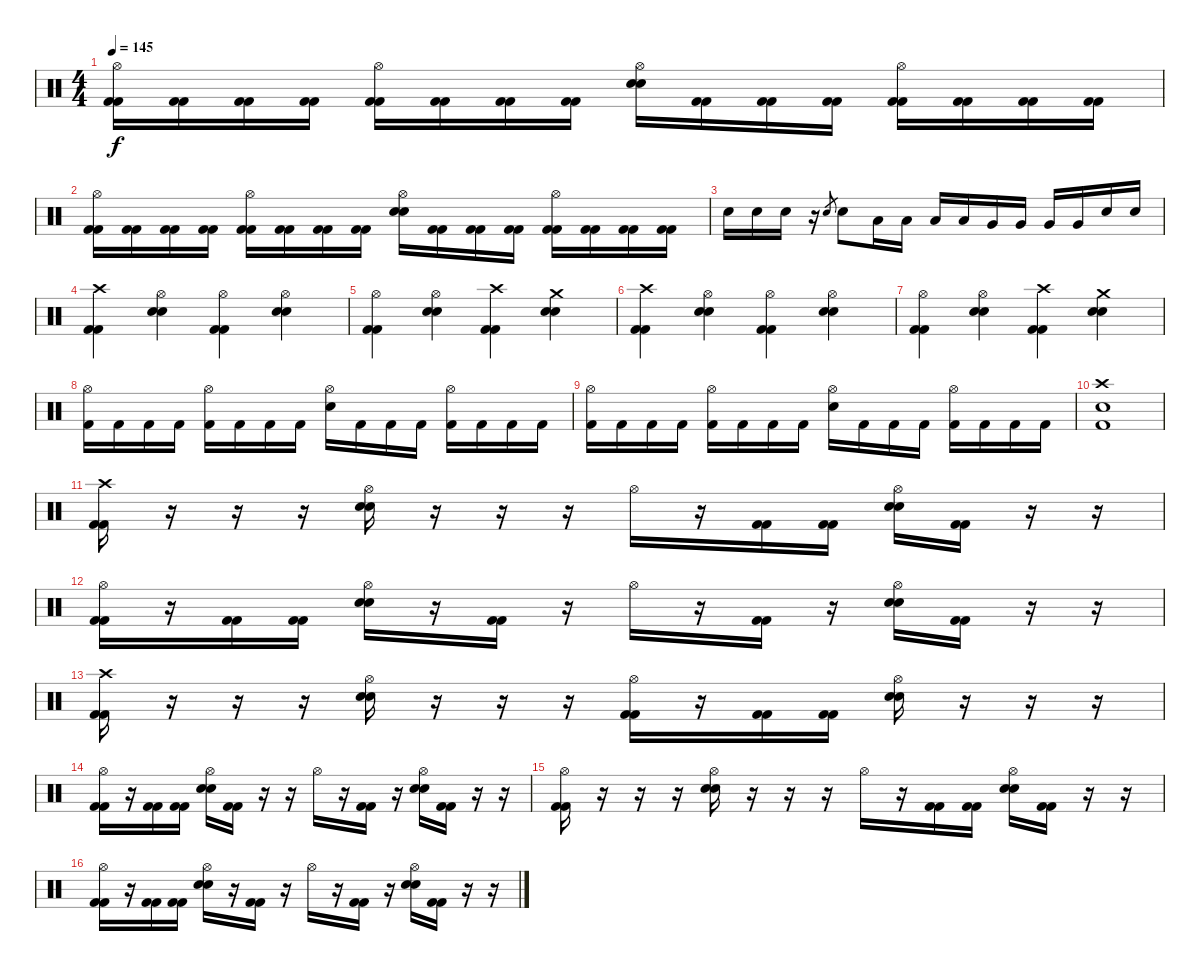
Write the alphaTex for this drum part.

\track "" {instrument percussion}
\staff {score}
\articulation defaults
\ts (4 4)
\tempo 145
\clef neutral
\ks c
("Hi-Hat (open)" "Kick (hit) 2" "Kick (hit) 2").16{dy f} ("Kick (hit) 2" "Kick (hit) 2").16 ("Kick (hit) 2" "Kick (hit) 2").16 ("Kick (hit) 2" "Kick (hit) 2").16 ("Hi-Hat (open)" "Kick (hit) 2" "Kick (hit) 2").16 ("Kick (hit) 2" "Kick (hit) 2").16 ("Kick (hit) 2" "Kick (hit) 2").16 ("Kick (hit) 2" "Kick (hit) 2").16 ("Hi-Hat (open)" "Snare (hit) 2" "Snare (hit) 2").16 ("Kick (hit) 2" "Kick (hit) 2").16 ("Kick (hit) 2" "Kick (hit) 2").16 ("Kick (hit) 2" "Kick (hit) 2").16 ("Hi-Hat (open)" "Kick (hit) 2" "Kick (hit) 2").16 ("Kick (hit) 2" "Kick (hit) 2").16 ("Kick (hit) 2" "Kick (hit) 2").16 ("Kick (hit) 2" "Kick (hit) 2").16 |
("Hi-Hat (open)" "Kick (hit) 2" "Kick (hit) 2").16 ("Kick (hit) 2" "Kick (hit) 2").16 ("Kick (hit) 2" "Kick (hit) 2").16 ("Kick (hit) 2" "Kick (hit) 2").16 ("Hi-Hat (open)" "Kick (hit) 2" "Kick (hit) 2").16 ("Kick (hit) 2" "Kick (hit) 2").16 ("Kick (hit) 2" "Kick (hit) 2").16 ("Kick (hit) 2" "Kick (hit) 2").16 ("Hi-Hat (open)" "Snare (hit) 2" "Snare (hit) 2").16 ("Kick (hit) 2" "Kick (hit) 2").16 ("Kick (hit) 2" "Kick (hit) 2").16 ("Kick (hit) 2" "Kick (hit) 2").16 ("Hi-Hat (open)" "Kick (hit) 2" "Kick (hit) 2").16 ("Kick (hit) 2" "Kick (hit) 2").16 ("Kick (hit) 2" "Kick (hit) 2").16 ("Kick (hit) 2" "Kick (hit) 2").16 |
"Electric Snare (hit)".16 "Electric Snare (hit)".16 "Electric Snare (hit)".16 r.16 "Electric Snare (hit)".8{gr} "Electric Snare (hit)".8 "Low Tom (hit)".16 "Low Tom (hit)".16 "Low Tom (hit)".16 "Low Tom (hit)".16 "Very Low Tom (hit)".16 "Very Low Tom (hit)".16 "Very Low Tom (hit)".16 "Very Low Tom (hit)".16 "Snare (hit) 2".16 "Snare (hit) 2".16 |
("Crash high (hit)" "Kick (hit) 2" "Kick (hit) 2").4 ("Hi-Hat (open)" "Snare (hit) 2" "Snare (hit) 2").4 ("Hi-Hat (open)" "Kick (hit) 2" "Kick (hit) 2").4 ("Hi-Hat (open)" "Snare (hit) 2" "Snare (hit) 2").4 |
("Hi-Hat (open)" "Kick (hit) 2" "Kick (hit) 2").4 ("Hi-Hat (open)" "Snare (hit) 2" "Snare (hit) 2").4 ("Crash high (hit)" "Kick (hit) 2" "Kick (hit) 2").4 ("Crash medium (hit)" "Snare (hit) 2" "Snare (hit) 2").4 |
("Crash high (hit)" "Kick (hit) 2" "Kick (hit) 2").4 ("Hi-Hat (open)" "Snare (hit) 2" "Snare (hit) 2").4 ("Hi-Hat (open)" "Kick (hit) 2" "Kick (hit) 2").4 ("Hi-Hat (open)" "Snare (hit) 2" "Snare (hit) 2").4 |
("Hi-Hat (open)" "Kick (hit) 2" "Kick (hit) 2").4 ("Hi-Hat (open)" "Snare (hit) 2" "Snare (hit) 2").4 ("Crash high (hit)" "Kick (hit) 2" "Kick (hit) 2").4 ("Crash medium (hit)" "Snare (hit) 2" "Snare (hit) 2").4 |
("Hi-Hat (open)" "Kick (hit) 2").16 "Kick (hit) 2".16 "Kick (hit) 2".16 "Kick (hit) 2".16 ("Hi-Hat (open)" "Kick (hit) 2").16 "Kick (hit) 2".16 "Kick (hit) 2".16 "Kick (hit) 2".16 ("Hi-Hat (open)" "Snare (hit) 2").16 "Kick (hit) 2".16 "Kick (hit) 2".16 "Kick (hit) 2".16 ("Hi-Hat (open)" "Kick (hit) 2").16 "Kick (hit) 2".16 "Kick (hit) 2".16 "Kick (hit) 2".16 |
("Hi-Hat (open)" "Kick (hit) 2").16 "Kick (hit) 2".16 "Kick (hit) 2".16 "Kick (hit) 2".16 ("Hi-Hat (open)" "Kick (hit) 2").16 "Kick (hit) 2".16 "Kick (hit) 2".16 "Kick (hit) 2".16 ("Hi-Hat (open)" "Snare (hit) 2").16 "Kick (hit) 2".16 "Kick (hit) 2".16 "Kick (hit) 2".16 ("Hi-Hat (open)" "Kick (hit) 2").16 "Kick (hit) 2".16 "Kick (hit) 2".16 "Kick (hit) 2".16 |
("Crash high (hit)" "Snare (hit) 2" "Kick (hit) 2").1 |
("Crash high (hit)" "Kick (hit) 2" "Kick (hit) 2").16 r.16 r.16 r.16 ("Hi-Hat (open)" "Snare (hit) 2" "Snare (hit) 2").16 r.16 r.16 r.16 "Hi-Hat (open)".16 r.16 ("Kick (hit) 2" "Kick (hit) 2").16 ("Kick (hit) 2" "Kick (hit) 2").16 ("Hi-Hat (open)" "Snare (hit) 2" "Snare (hit) 2").16 ("Kick (hit) 2" "Kick (hit) 2").16 r.16 r.16 |
("Hi-Hat (open)" "Kick (hit) 2" "Kick (hit) 2").16 r.16 ("Kick (hit) 2" "Kick (hit) 2").16 ("Kick (hit) 2" "Kick (hit) 2").16 ("Hi-Hat (open)" "Snare (hit) 2" "Snare (hit) 2").16 r.16 ("Kick (hit) 2" "Kick (hit) 2").16 r.16 "Hi-Hat (open)".16 r.16 ("Kick (hit) 2" "Kick (hit) 2").16 r.16 ("Hi-Hat (open)" "Snare (hit) 2" "Snare (hit) 2").16 ("Kick (hit) 2" "Kick (hit) 2").16 r.16 r.16 |
("Crash high (hit)" "Kick (hit) 2" "Kick (hit) 2").16 r.16 r.16 r.16 ("Hi-Hat (open)" "Snare (hit) 2" "Snare (hit) 2").16 r.16 r.16 r.16 ("Hi-Hat (open)" "Kick (hit) 2" "Kick (hit) 2").16 r.16 ("Kick (hit) 2" "Kick (hit) 2").16 ("Kick (hit) 2" "Kick (hit) 2").16 ("Hi-Hat (open)" "Snare (hit) 2" "Snare (hit) 2").16 r.16 r.16 r.16 |
("Hi-Hat (open)" "Kick (hit) 2" "Kick (hit) 2").16 r.16 ("Kick (hit) 2" "Kick (hit) 2").16 ("Kick (hit) 2" "Kick (hit) 2").16 ("Hi-Hat (open)" "Snare (hit) 2" "Snare (hit) 2").16 ("Kick (hit) 2" "Kick (hit) 2").16 r.16 r.16 "Hi-Hat (open)".16 r.16 ("Kick (hit) 2" "Kick (hit) 2").16 r.16 ("Hi-Hat (open)" "Snare (hit) 2" "Snare (hit) 2").16 ("Kick (hit) 2" "Kick (hit) 2").16 r.16 r.16 |
("Hi-Hat (open)" "Kick (hit) 2" "Kick (hit) 2").16 r.16 r.16 r.16 ("Hi-Hat (open)" "Snare (hit) 2" "Snare (hit) 2").16 r.16 r.16 r.16 "Hi-Hat (open)".16 r.16 ("Kick (hit) 2" "Kick (hit) 2").16 ("Kick (hit) 2" "Kick (hit) 2").16 ("Hi-Hat (open)" "Snare (hit) 2" "Snare (hit) 2").16 ("Kick (hit) 2" "Kick (hit) 2").16 r.16 r.16 |
("Hi-Hat (open)" "Kick (hit) 2" "Kick (hit) 2").16 r.16 ("Kick (hit) 2" "Kick (hit) 2").16 ("Kick (hit) 2" "Kick (hit) 2").16 ("Hi-Hat (open)" "Snare (hit) 2" "Snare (hit) 2").16 r.16 ("Kick (hit) 2" "Kick (hit) 2").16 r.16 "Hi-Hat (open)".16 r.16 ("Kick (hit) 2" "Kick (hit) 2").16 r.16 ("Hi-Hat (open)" "Snare (hit) 2" "Snare (hit) 2").16 ("Kick (hit) 2" "Kick (hit) 2").16 r.16 r.16
